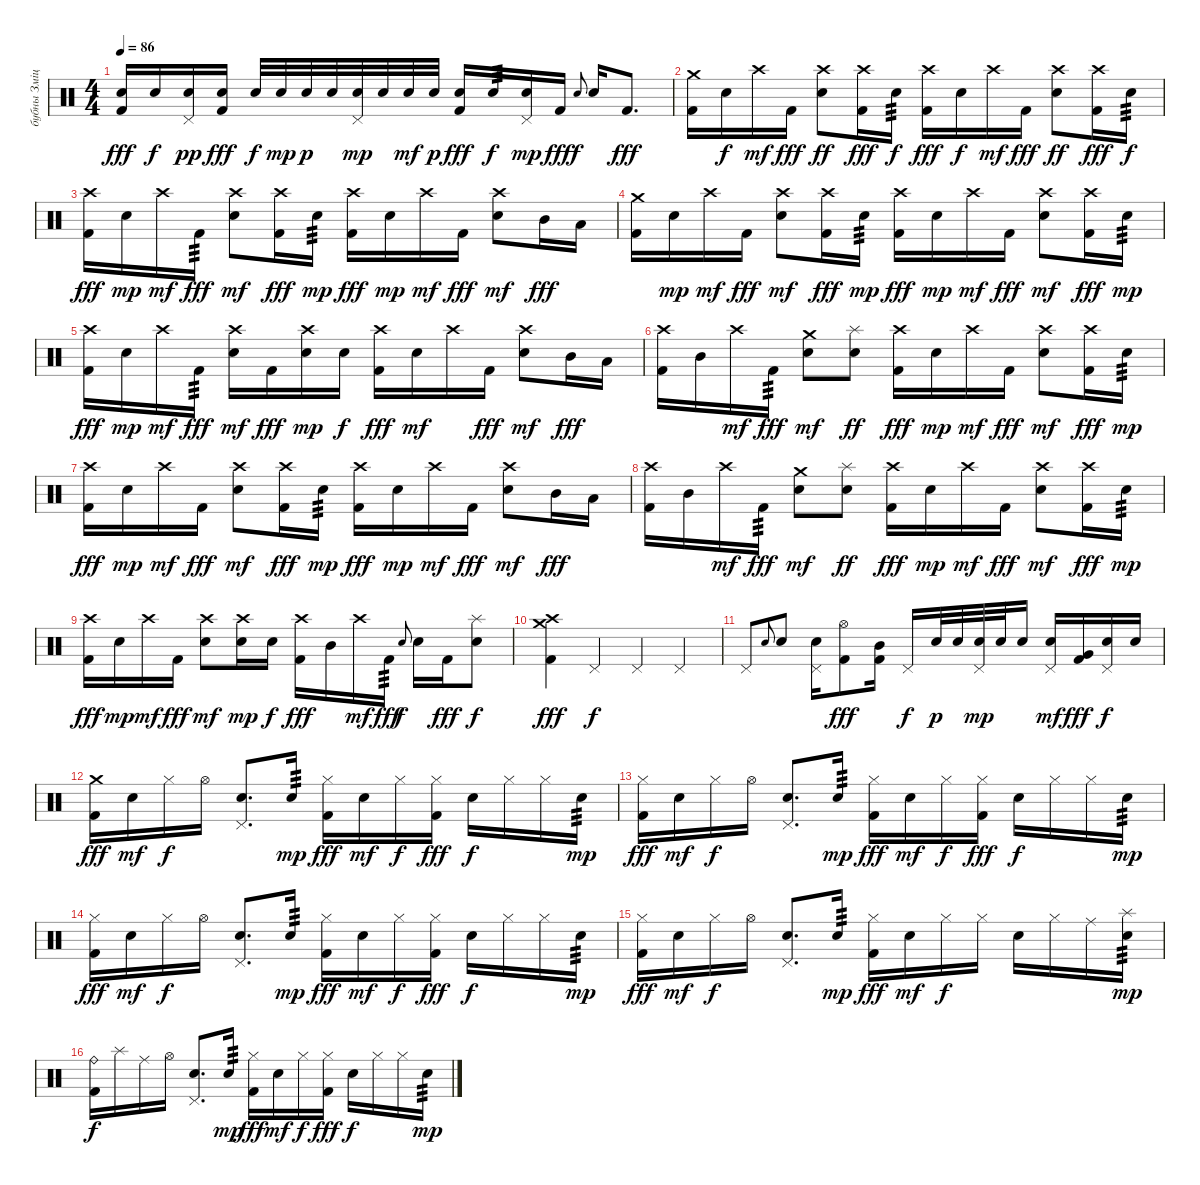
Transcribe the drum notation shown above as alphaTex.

\track ("бубны Змiцер" "бубны Змiц") {instrument percussion}
\staff {score}
\articulation defaults
\ts (4 4)
\tempo 86
\clef neutral
\ks c
("Electric Snare (hit)" "Kick (hit) 2").16{dy fff} "Electric Snare (hit)".16{dy f} ("Pedal Hi-Hat (hit)" "Electric Snare (hit)").16{dy pp} ("Electric Snare (hit)" "Kick (hit) 2").16{dy fff} "Electric Snare (hit)".32{dy f} "Electric Snare (hit)".32{dy mp} "Electric Snare (hit)".32{dy p} "Electric Snare (hit)".32 ("Pedal Hi-Hat (hit)" "Electric Snare (hit)").32{dy mp} "Electric Snare (hit)".32 "Electric Snare (hit)".32{dy mf} "Electric Snare (hit)".32{dy p} ("Electric Snare (hit)" "Kick (hit) 2").16{dy fff} "Electric Snare (hit)".16{tp 3 dy f} ("Pedal Hi-Hat (hit)" "Electric Snare (hit)").16{dy mp} "Kick (hit) 2".16{dy fff} "Electric Snare (hit)".8{gr onbeat dy f} "Electric Snare (hit)".16 "Kick (hit) 2".8{d dy fff} |
("Crash medium (hit)" "Kick (hit) 2").16 "Electric Snare (hit)".16{dy f} "Crash high (hit)".16{dy mf} "Kick (hit) 2".16{dy fff} ("Crash high (hit)" "Electric Snare (hit)").8{dy ff} ("Crash high (hit)" "Kick (hit) 2").16{dy fff} "Electric Snare (hit)".16{tp 3 dy f} ("Crash high (hit)" "Kick (hit) 2").16{dy fff} "Electric Snare (hit)".16{dy f} "Crash high (hit)".16{dy mf} "Kick (hit) 2".16{dy fff} ("Crash high (hit)" "Electric Snare (hit)").8{dy ff} ("Crash high (hit)" "Kick (hit) 2").16{dy fff} "Electric Snare (hit)".16{tp 3 dy f} |
("Crash high (hit)" "Kick (hit) 2").16{dy fff} "Electric Snare (hit)".16{dy mp} "Crash high (hit)".16{dy mf} "Kick (hit) 2".16{tp 3 dy fff} ("Crash high (hit)" "Electric Snare (hit)").8{dy mf} ("Crash high (hit)" "Kick (hit) 2").16{dy fff} "Electric Snare (hit)".16{tp 3 dy mp} ("Crash high (hit)" "Kick (hit) 2").16{dy fff} "Electric Snare (hit)".16{dy mp} "Crash high (hit)".16{dy mf} "Kick (hit) 2".16{dy fff} ("Crash high (hit)" "Electric Snare (hit)").8{dy mf} "Mid Tom (hit)".16{dy fff} "Low Tom (hit)".16 |
("Crash medium (hit)" "Kick (hit) 2").16 "Electric Snare (hit)".16{dy mp} "Crash high (hit)".16{dy mf} "Kick (hit) 2".16{dy fff} ("Crash high (hit)" "Electric Snare (hit)").8{dy mf} ("Crash high (hit)" "Kick (hit) 2").16{dy fff} "Electric Snare (hit)".16{tp 3 dy mp} ("Crash high (hit)" "Kick (hit) 2").16{dy fff} "Electric Snare (hit)".16{dy mp} "Crash high (hit)".16{dy mf} "Kick (hit) 2".16{dy fff} ("Crash high (hit)" "Electric Snare (hit)").8{dy mf} ("Crash high (hit)" "Kick (hit) 2").16{dy fff} "Electric Snare (hit)".16{tp 3 dy mp} |
("Crash high (hit)" "Kick (hit) 2").16{dy fff} "Electric Snare (hit)".16{dy mp} "Crash high (hit)".16{dy mf} "Kick (hit) 2".16{tp 3 dy fff} ("Crash high (hit)" "Electric Snare (hit)").16{dy mf} "Kick (hit) 2".16{dy fff} ("Crash high (hit)" "Electric Snare (hit)").16{dy mp} "Electric Snare (hit)".16{dy f} ("Crash high (hit)" "Kick (hit) 2").16{dy fff} "Electric Snare (hit)".16{dy mf} "Crash high (hit)".16 "Kick (hit) 2".16{dy fff} ("Crash high (hit)" "Electric Snare (hit)").8{dy mf} "Mid Tom (hit)".16{dy fff} "Low Tom (hit)".16 |
("Crash high (hit)" "Kick (hit) 2").16 "Mid Tom (hit)".16 "Crash high (hit)".16{dy mf} "Kick (hit) 2".16{tp 3 dy fff} ("Crash medium (hit)" "Electric Snare (hit)").8{dy mf} ("Splash (hit)" "Electric Snare (hit)").8{dy ff} ("Crash high (hit)" "Kick (hit) 2").16{dy fff} "Electric Snare (hit)".16{dy mp} "Crash high (hit)".16{dy mf} "Kick (hit) 2".16{dy fff} ("Crash high (hit)" "Electric Snare (hit)").8{dy mf} ("Crash high (hit)" "Kick (hit) 2").16{dy fff} "Electric Snare (hit)".16{tp 3 dy mp} |
("Crash high (hit)" "Kick (hit) 2").16{dy fff} "Electric Snare (hit)".16{dy mp} "Crash high (hit)".16{dy mf} "Kick (hit) 2".16{dy fff} ("Crash high (hit)" "Electric Snare (hit)").8{dy mf} ("Crash high (hit)" "Kick (hit) 2").16{dy fff} "Electric Snare (hit)".16{tp 3 dy mp} ("Crash high (hit)" "Kick (hit) 2").16{dy fff} "Electric Snare (hit)".16{dy mp} "Crash high (hit)".16{dy mf} "Kick (hit) 2".16{dy fff} ("Crash high (hit)" "Electric Snare (hit)").8{dy mf} "Mid Tom (hit)".16{dy fff} "Low Tom (hit)".16 |
("Crash high (hit)" "Kick (hit) 2").16 "Mid Tom (hit)".16 "Crash high (hit)".16{dy mf} "Kick (hit) 2".16{tp 3 dy fff} ("Crash medium (hit)" "Electric Snare (hit)").8{dy mf} ("Splash (hit)" "Electric Snare (hit)").8{dy ff} ("Crash high (hit)" "Kick (hit) 2").16{dy fff} "Electric Snare (hit)".16{dy mp} "Crash high (hit)".16{dy mf} "Kick (hit) 2".16{dy fff} ("Crash high (hit)" "Electric Snare (hit)").8{dy mf} ("Crash high (hit)" "Kick (hit) 2").16{dy fff} "Electric Snare (hit)".16{tp 3 dy mp} |
("Crash high (hit)" "Kick (hit) 2").16{dy fff} "Electric Snare (hit)".16{dy mp} "Crash high (hit)".16{dy mf} "Kick (hit) 2".16{dy fff} ("Crash high (hit)" "Electric Snare (hit)").8{dy mf} ("Crash high (hit)" "Electric Snare (hit)").16{dy mp} "Electric Snare (hit)".16{dy f} ("Crash high (hit)" "Kick (hit) 2").16{dy fff} "Mid Tom (hit)".16 "Crash high (hit)".16{dy mf} "Kick (hit) 2".16{tp 3 dy fff} "Electric Snare (hit)".8{gr onbeat dy f} "Electric Snare (hit)".16 "Kick (hit) 2".16{dy fff} ("Splash (hit)" "Electric Snare (hit)").8{dy f} |
("Crash medium (hit)" "Crash high (hit)" "Kick (hit) 2").4{dy fff} "Pedal Hi-Hat (hit)".4{dy f} "Pedal Hi-Hat (hit)".4 "Pedal Hi-Hat (hit)".4 |
"Pedal Hi-Hat (hit)".8 "Electric Snare (hit)".8{gr onbeat} "Electric Snare (hit)".8 ("Electric Snare (hit)" "Pedal Hi-Hat (hit)").16 ("Hi-Hat (open)" "Kick (hit) 2").8{dy fff} ("Mid Tom (hit)" "Kick (hit) 2").16 "Pedal Hi-Hat (hit)".16{dy f} "Electric Snare (hit)".32{dy p} "Electric Snare (hit)".32 ("Electric Snare (hit)" "Pedal Hi-Hat (hit)").32{dy mp} "Electric Snare (hit)".32 "Electric Snare (hit)".16 ("Electric Snare (hit)" "Pedal Hi-Hat (hit)").16{dy mf} ("Very Low Tom (hit)" "Kick (hit) 2").16{dy fff} ("Electric Snare (hit)" "Pedal Hi-Hat (hit)").16{dy f} "Electric Snare (hit)".16 |
("Crash medium (hit)" "Kick (hit) 2").16{dy fff} "Electric Snare (hit)".16{dy mf} "Hi-Hat (closed)".16{dy f} "Hi-Hat (open)".16 ("Pedal Hi-Hat (hit)" "Electric Snare (hit)").8{d} "Electric Snare (hit)".16{tp 3 dy mp} ("Hi-Hat (closed)" "Kick (hit) 2").16{dy fff} "Electric Snare (hit)".16{dy mf} "Hi-Hat (closed)".16{dy f} ("Hi-Hat (closed)" "Kick (hit) 2").16{dy fff} "Electric Snare (hit)".16{dy f} "Hi-Hat (closed)".16 "Hi-Hat (closed)".16 "Electric Snare (hit)".16{tp 3 dy mp} |
("Hi-Hat (closed)" "Kick (hit) 2").16{dy fff} "Electric Snare (hit)".16{dy mf} "Hi-Hat (closed)".16{dy f} "Hi-Hat (open)".16 ("Pedal Hi-Hat (hit)" "Electric Snare (hit)").8{d} "Electric Snare (hit)".16{tp 3 dy mp} ("Hi-Hat (closed)" "Kick (hit) 2").16{dy fff} "Electric Snare (hit)".16{dy mf} "Hi-Hat (closed)".16{dy f} ("Hi-Hat (closed)" "Kick (hit) 2").16{dy fff} "Electric Snare (hit)".16{dy f} "Hi-Hat (closed)".16 "Hi-Hat (closed)".16 "Electric Snare (hit)".16{tp 3 dy mp} |
("Hi-Hat (closed)" "Kick (hit) 2").16{dy fff} "Electric Snare (hit)".16{dy mf} "Hi-Hat (closed)".16{dy f} "Hi-Hat (open)".16 ("Pedal Hi-Hat (hit)" "Electric Snare (hit)").8{d} "Electric Snare (hit)".16{tp 3 dy mp} ("Hi-Hat (closed)" "Kick (hit) 2").16{dy fff} "Electric Snare (hit)".16{dy mf} "Hi-Hat (closed)".16{dy f} ("Hi-Hat (closed)" "Kick (hit) 2").16{dy fff} "Electric Snare (hit)".16{dy f} "Hi-Hat (closed)".16 "Hi-Hat (closed)".16 "Electric Snare (hit)".16{tp 3 dy mp} |
("Hi-Hat (closed)" "Kick (hit) 2").16{dy fff} "Electric Snare (hit)".16{dy mf} "Hi-Hat (closed)".16{dy f} "Hi-Hat (open)".16 ("Pedal Hi-Hat (hit)" "Electric Snare (hit)").8{d} "Electric Snare (hit)".16{tp 3 dy mp} ("Hi-Hat (closed)" "Kick (hit) 2").16{dy fff} "Electric Snare (hit)".16{dy mf} "Hi-Hat (closed)".16{dy f} "Hi-Hat (closed)".16 "Electric Snare (hit)".16 "Hi-Hat (closed)".16 "Ride (middle)".16 ("Splash (hit)" "Electric Snare (hit)").16{tp 3 dy mp} |
("Ride (bell)" "Kick (hit) 2").16{dy f} "Splash (hit)".16 "Ride (middle)".16 "Hi-Hat (open)".16 ("Pedal Hi-Hat (hit)" "Electric Snare (hit)").8{d} "Electric Snare (hit)".16{tp 3 dy mp} ("Hi-Hat (closed)" "Kick (hit) 2").16{dy fff} "Electric Snare (hit)".16{dy mf} "Hi-Hat (closed)".16{dy f} ("Hi-Hat (closed)" "Kick (hit) 2").16{dy fff} "Electric Snare (hit)".16{dy f} "Hi-Hat (closed)".16 "Hi-Hat (closed)".16 "Electric Snare (hit)".16{tp 3 dy mp}
